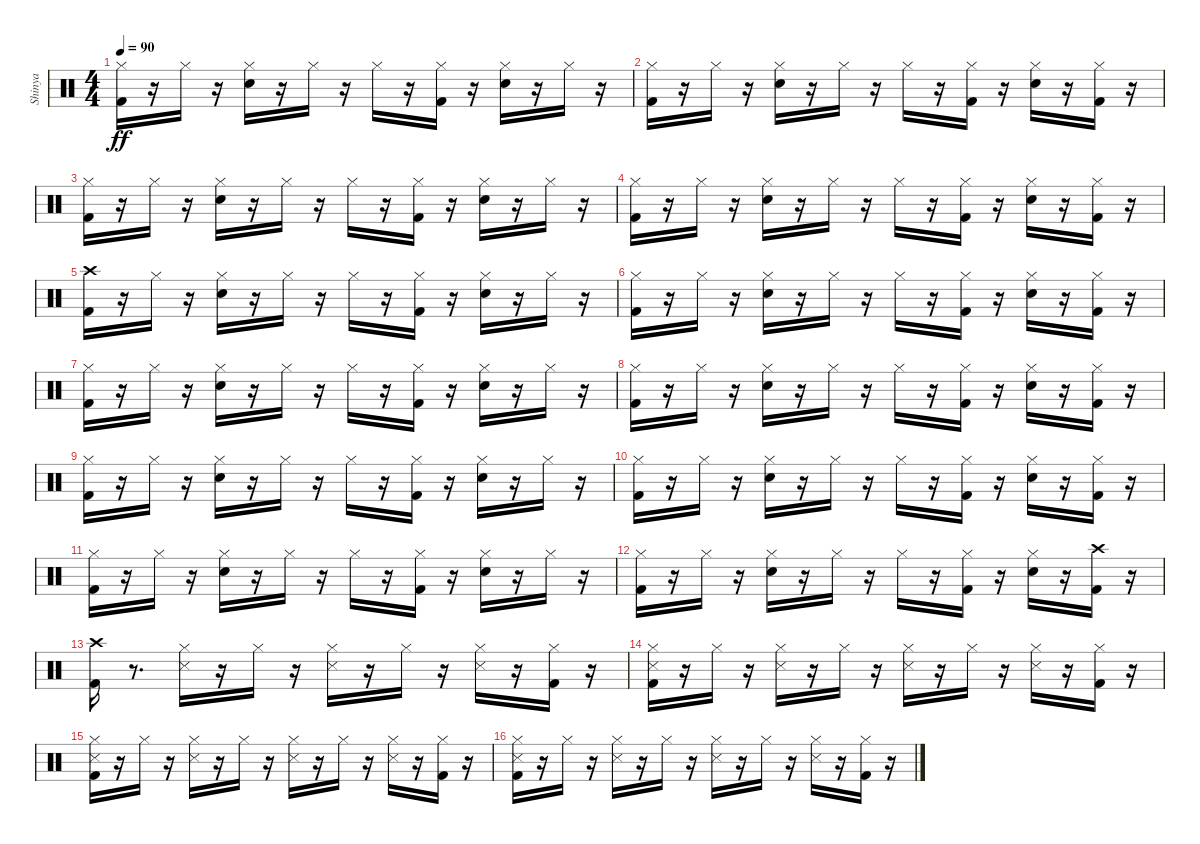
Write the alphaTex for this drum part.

\track ("Shinya" "Shinya") {instrument percussion}
\staff {score}
\articulation defaults
\ts (4 4)
\tempo 90
\clef neutral
\ks c
("Hi-Hat (closed)" "Kick (hit) 2").16{dy ff} r.16 "Hi-Hat (closed)".16 r.16 ("Snare (hit) 2" "Hi-Hat (closed)").16 r.16 "Hi-Hat (closed)".16 r.16 "Hi-Hat (closed)".16 r.16 ("Hi-Hat (closed)" "Kick (hit) 2").16 r.16 ("Snare (hit) 2" "Hi-Hat (closed)").16 r.16 "Hi-Hat (closed)".16 r.16 |
("Hi-Hat (closed)" "Kick (hit) 2").16 r.16 "Hi-Hat (closed)".16 r.16 ("Snare (hit) 2" "Hi-Hat (closed)").16 r.16 "Hi-Hat (closed)".16 r.16 "Hi-Hat (closed)".16 r.16 ("Hi-Hat (closed)" "Kick (hit) 2").16 r.16 ("Snare (hit) 2" "Hi-Hat (closed)").16 r.16 ("Hi-Hat (closed)" "Kick (hit) 2").16 r.16 |
("Hi-Hat (closed)" "Kick (hit) 2").16 r.16 "Hi-Hat (closed)".16 r.16 ("Snare (hit) 2" "Hi-Hat (closed)").16 r.16 "Hi-Hat (closed)".16 r.16 "Hi-Hat (closed)".16 r.16 ("Hi-Hat (closed)" "Kick (hit) 2").16 r.16 ("Snare (hit) 2" "Hi-Hat (closed)").16 r.16 "Hi-Hat (closed)".16 r.16 |
("Hi-Hat (closed)" "Kick (hit) 2").16 r.16 "Hi-Hat (closed)".16 r.16 ("Snare (hit) 2" "Hi-Hat (closed)").16 r.16 "Hi-Hat (closed)".16 r.16 "Hi-Hat (closed)".16 r.16 ("Hi-Hat (closed)" "Kick (hit) 2").16 r.16 ("Snare (hit) 2" "Hi-Hat (closed)").16 r.16 ("Hi-Hat (closed)" "Kick (hit) 2").16 r.16 |
("Crash high (hit)" "Kick (hit) 2").16 r.16 "Hi-Hat (closed)".16 r.16 ("Snare (hit) 2" "Hi-Hat (closed)").16 r.16 "Hi-Hat (closed)".16 r.16 "Hi-Hat (closed)".16 r.16 ("Hi-Hat (closed)" "Kick (hit) 2").16 r.16 ("Snare (hit) 2" "Hi-Hat (closed)").16 r.16 "Hi-Hat (closed)".16 r.16 |
("Hi-Hat (closed)" "Kick (hit) 2").16 r.16 "Hi-Hat (closed)".16 r.16 ("Snare (hit) 2" "Hi-Hat (closed)").16 r.16 "Hi-Hat (closed)".16 r.16 "Hi-Hat (closed)".16 r.16 ("Hi-Hat (closed)" "Kick (hit) 2").16 r.16 ("Snare (hit) 2" "Hi-Hat (closed)").16 r.16 ("Hi-Hat (closed)" "Kick (hit) 2").16 r.16 |
("Hi-Hat (closed)" "Kick (hit) 2").16 r.16 "Hi-Hat (closed)".16 r.16 ("Snare (hit) 2" "Hi-Hat (closed)").16 r.16 "Hi-Hat (closed)".16 r.16 "Hi-Hat (closed)".16 r.16 ("Hi-Hat (closed)" "Kick (hit) 2").16 r.16 ("Snare (hit) 2" "Hi-Hat (closed)").16 r.16 "Hi-Hat (closed)".16 r.16 |
("Hi-Hat (closed)" "Kick (hit) 2").16 r.16 "Hi-Hat (closed)".16 r.16 ("Snare (hit) 2" "Hi-Hat (closed)").16 r.16 "Hi-Hat (closed)".16 r.16 "Hi-Hat (closed)".16 r.16 ("Hi-Hat (closed)" "Kick (hit) 2").16 r.16 ("Snare (hit) 2" "Hi-Hat (closed)").16 r.16 ("Hi-Hat (closed)" "Kick (hit) 2").16 r.16 |
("Hi-Hat (closed)" "Kick (hit) 2").16 r.16 "Hi-Hat (closed)".16 r.16 ("Snare (hit) 2" "Hi-Hat (closed)").16 r.16 "Hi-Hat (closed)".16 r.16 "Hi-Hat (closed)".16 r.16 ("Hi-Hat (closed)" "Kick (hit) 2").16 r.16 ("Snare (hit) 2" "Hi-Hat (closed)").16 r.16 "Hi-Hat (closed)".16 r.16 |
("Hi-Hat (closed)" "Kick (hit) 2").16 r.16 "Hi-Hat (closed)".16 r.16 ("Snare (hit) 2" "Hi-Hat (closed)").16 r.16 "Hi-Hat (closed)".16 r.16 "Hi-Hat (closed)".16 r.16 ("Hi-Hat (closed)" "Kick (hit) 2").16 r.16 ("Snare (hit) 2" "Hi-Hat (closed)").16 r.16 ("Hi-Hat (closed)" "Kick (hit) 2").16 r.16 |
("Hi-Hat (closed)" "Kick (hit) 2").16 r.16 "Hi-Hat (closed)".16 r.16 ("Snare (hit) 2" "Hi-Hat (closed)").16 r.16 "Hi-Hat (closed)".16 r.16 "Hi-Hat (closed)".16 r.16 ("Hi-Hat (closed)" "Kick (hit) 2").16 r.16 ("Snare (hit) 2" "Hi-Hat (closed)").16 r.16 "Hi-Hat (closed)".16 r.16 |
("Hi-Hat (closed)" "Kick (hit) 2").16 r.16 "Hi-Hat (closed)".16 r.16 ("Snare (hit) 2" "Hi-Hat (closed)").16 r.16 "Hi-Hat (closed)".16 r.16 "Hi-Hat (closed)".16 r.16 ("Hi-Hat (closed)" "Kick (hit) 2").16 r.16 ("Snare (hit) 2" "Hi-Hat (closed)").16 r.16 ("Crash high (hit)" "Kick (hit) 2").16 r.16 |
("Crash high (hit)" "Kick (hit) 2").16 r.8{d} ("Snare (side stick) 3" "Hi-Hat (closed)").16 r.16 "Hi-Hat (closed)".16 r.16 ("Snare (side stick) 3" "Hi-Hat (closed)").16 r.16 "Hi-Hat (closed)".16 r.16 ("Snare (side stick) 3" "Hi-Hat (closed)").16 r.16 ("Kick (hit) 2" "Hi-Hat (closed)").16 r.16 |
("Kick (hit) 2" "Snare (side stick) 3" "Hi-Hat (closed)").16 r.16 "Hi-Hat (closed)".16 r.16 ("Snare (side stick) 3" "Hi-Hat (closed)").16 r.16 "Hi-Hat (closed)".16 r.16 ("Snare (side stick) 3" "Hi-Hat (closed)").16 r.16 "Hi-Hat (closed)".16 r.16 ("Snare (side stick) 3" "Hi-Hat (closed)").16 r.16 ("Hi-Hat (closed)" "Kick (hit) 2").16 r.16 |
("Kick (hit) 2" "Snare (side stick) 3" "Hi-Hat (closed)").16 r.16 "Hi-Hat (closed)".16 r.16 ("Snare (side stick) 3" "Hi-Hat (closed)").16 r.16 "Hi-Hat (closed)".16 r.16 ("Snare (side stick) 3" "Hi-Hat (closed)").16 r.16 "Hi-Hat (closed)".16 r.16 ("Snare (side stick) 3" "Hi-Hat (closed)").16 r.16 ("Hi-Hat (closed)" "Kick (hit) 2").16 r.16 |
("Kick (hit) 2" "Snare (side stick) 3" "Hi-Hat (closed)").16 r.16 "Hi-Hat (closed)".16 r.16 ("Snare (side stick) 3" "Hi-Hat (closed)").16 r.16 "Hi-Hat (closed)".16 r.16 ("Snare (side stick) 3" "Hi-Hat (closed)").16 r.16 "Hi-Hat (closed)".16 r.16 ("Snare (side stick) 3" "Hi-Hat (closed)").16 r.16 ("Hi-Hat (closed)" "Kick (hit) 2").16 r.16
